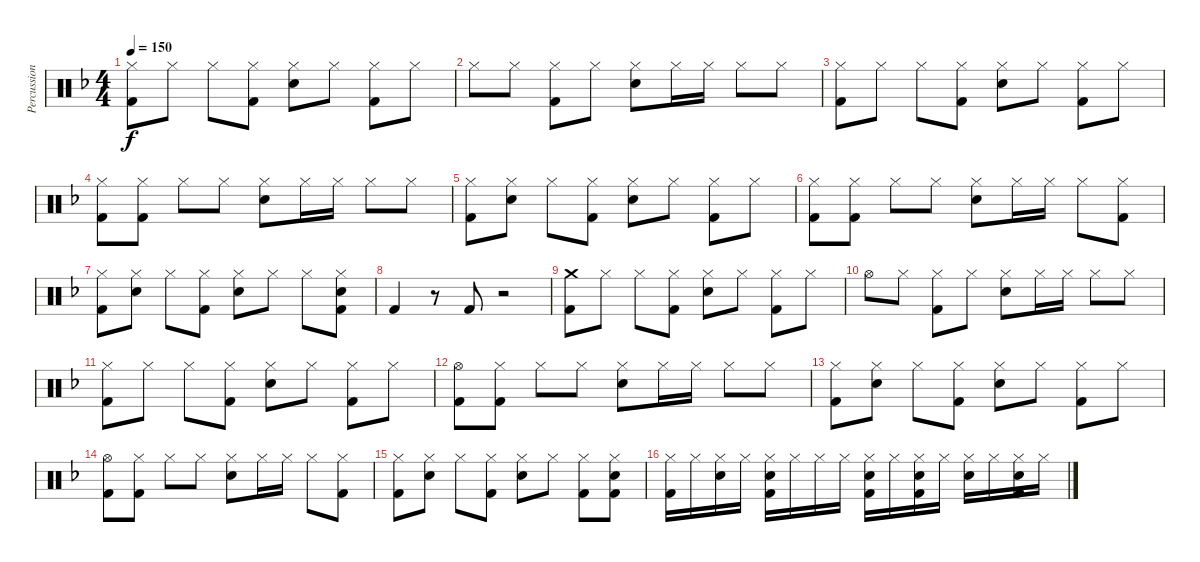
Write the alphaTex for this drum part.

\track ("Percussion" "Percussion") {instrument percussion}
\staff {score}
\articulation defaults
\ts (4 4)
\tempo 150
\clef neutral
\ks f
("Hi-Hat (closed)" "Kick (hit) 2").8{dy f} "Hi-Hat (closed)".8 "Hi-Hat (closed)".8 ("Hi-Hat (closed)" "Kick (hit) 2").8 ("Hi-Hat (closed)" "Electric Snare (hit)").8 "Hi-Hat (closed)".8 ("Hi-Hat (closed)" "Kick (hit) 2").8 "Hi-Hat (closed)".8 |
"Hi-Hat (closed)".8 "Hi-Hat (closed)".8 ("Hi-Hat (closed)" "Kick (hit) 2").8 "Hi-Hat (closed)".8 ("Hi-Hat (closed)" "Electric Snare (hit)").8 "Hi-Hat (closed)".16 "Hi-Hat (closed)".16 "Hi-Hat (closed)".8 "Hi-Hat (closed)".8 |
("Hi-Hat (closed)" "Kick (hit) 2").8 "Hi-Hat (closed)".8 "Hi-Hat (closed)".8 ("Hi-Hat (closed)" "Kick (hit) 2").8 ("Hi-Hat (closed)" "Electric Snare (hit)").8 "Hi-Hat (closed)".8 ("Hi-Hat (closed)" "Kick (hit) 2").8 "Hi-Hat (closed)".8 |
("Hi-Hat (closed)" "Kick (hit) 2").8 ("Hi-Hat (closed)" "Kick (hit) 2").8 "Hi-Hat (closed)".8 "Hi-Hat (closed)".8 ("Hi-Hat (closed)" "Electric Snare (hit)").8 "Hi-Hat (closed)".16 "Hi-Hat (closed)".16 "Hi-Hat (closed)".8 "Hi-Hat (closed)".8 |
("Hi-Hat (closed)" "Kick (hit) 2").8 ("Hi-Hat (closed)" "Electric Snare (hit)").8 "Hi-Hat (closed)".8 ("Hi-Hat (closed)" "Kick (hit) 2").8 ("Hi-Hat (closed)" "Electric Snare (hit)").8 "Hi-Hat (closed)".8 ("Hi-Hat (closed)" "Kick (hit) 2").8 "Hi-Hat (closed)".8 |
("Hi-Hat (closed)" "Kick (hit) 2").8 ("Hi-Hat (closed)" "Kick (hit) 2").8 "Hi-Hat (closed)".8 "Hi-Hat (closed)".8 ("Hi-Hat (closed)" "Electric Snare (hit)").8 "Hi-Hat (closed)".16 "Hi-Hat (closed)".16 "Hi-Hat (closed)".8 ("Hi-Hat (closed)" "Kick (hit) 2").8 |
("Hi-Hat (closed)" "Kick (hit) 2").8 ("Hi-Hat (closed)" "Electric Snare (hit)").8 "Hi-Hat (closed)".8 ("Hi-Hat (closed)" "Kick (hit) 2").8 ("Hi-Hat (closed)" "Electric Snare (hit)").8 "Hi-Hat (closed)".8 "Hi-Hat (closed)".8 ("Hi-Hat (closed)" "Electric Snare (hit)" "Kick (hit) 2").8 |
"Kick (hit) 2".4 r.8 "Kick (hit) 2".8 r.2 |
("Crash medium (hit)" "Kick (hit) 2").8 "Hi-Hat (closed)".8 "Hi-Hat (closed)".8 ("Hi-Hat (closed)" "Kick (hit) 2").8 ("Hi-Hat (closed)" "Electric Snare (hit)").8 "Hi-Hat (closed)".8 ("Hi-Hat (closed)" "Kick (hit) 2").8 "Hi-Hat (closed)".8 |
"Hi-Hat (open)".8 "Hi-Hat (closed)".8 ("Hi-Hat (closed)" "Kick (hit) 2").8 "Hi-Hat (closed)".8 ("Hi-Hat (closed)" "Electric Snare (hit)").8 "Hi-Hat (closed)".16 "Hi-Hat (closed)".16 "Hi-Hat (closed)".8 "Hi-Hat (closed)".8 |
("Hi-Hat (closed)" "Kick (hit) 2").8 "Hi-Hat (closed)".8 "Hi-Hat (closed)".8 ("Hi-Hat (closed)" "Kick (hit) 2").8 ("Hi-Hat (closed)" "Electric Snare (hit)").8 "Hi-Hat (closed)".8 ("Hi-Hat (closed)" "Kick (hit) 2").8 "Hi-Hat (closed)".8 |
("Hi-Hat (open)" "Kick (hit) 2").8 ("Hi-Hat (closed)" "Kick (hit) 2").8 "Hi-Hat (closed)".8 "Hi-Hat (closed)".8 ("Hi-Hat (closed)" "Electric Snare (hit)").8 "Hi-Hat (closed)".16 "Hi-Hat (closed)".16 "Hi-Hat (closed)".8 "Hi-Hat (closed)".8 |
("Hi-Hat (closed)" "Kick (hit) 2").8 ("Hi-Hat (closed)" "Electric Snare (hit)").8 "Hi-Hat (closed)".8 ("Hi-Hat (closed)" "Kick (hit) 2").8 ("Hi-Hat (closed)" "Electric Snare (hit)").8 "Hi-Hat (closed)".8 ("Hi-Hat (closed)" "Kick (hit) 2").8 "Hi-Hat (closed)".8 |
("Hi-Hat (open)" "Kick (hit) 2").8 ("Hi-Hat (closed)" "Kick (hit) 2").8 "Hi-Hat (closed)".8 "Hi-Hat (closed)".8 ("Hi-Hat (closed)" "Electric Snare (hit)").8 "Hi-Hat (closed)".16 "Hi-Hat (closed)".16 "Hi-Hat (closed)".8 ("Hi-Hat (closed)" "Kick (hit) 2").8 |
("Hi-Hat (closed)" "Kick (hit) 2").8 ("Hi-Hat (closed)" "Electric Snare (hit)").8 "Hi-Hat (closed)".8 ("Hi-Hat (closed)" "Kick (hit) 2").8 ("Hi-Hat (closed)" "Electric Snare (hit)").8 "Hi-Hat (closed)".8 ("Hi-Hat (closed)" "Kick (hit) 2").8 ("Hi-Hat (closed)" "Electric Snare (hit)" "Kick (hit) 2").8 |
("Hi-Hat (closed)" "Kick (hit) 2").16 "Hi-Hat (closed)".16 ("Hi-Hat (closed)" "Electric Snare (hit)").16 "Hi-Hat (closed)".16 ("Hi-Hat (closed)" "Electric Snare (hit)" "Kick (hit) 2").16 "Hi-Hat (closed)".16 "Hi-Hat (closed)".16 "Hi-Hat (closed)".16 ("Hi-Hat (closed)" "Electric Snare (hit)" "Kick (hit) 2").16 "Hi-Hat (closed)".16 ("Hi-Hat (closed)" "Electric Snare (hit)" "Kick (hit) 2").16 "Hi-Hat (closed)".16 ("Hi-Hat (closed)" "Electric Snare (hit)").16 "Hi-Hat (closed)".16 ("Hi-Hat (closed)" "Electric Snare (hit)" "Kick (hit) 2").16 "Hi-Hat (closed)".16
